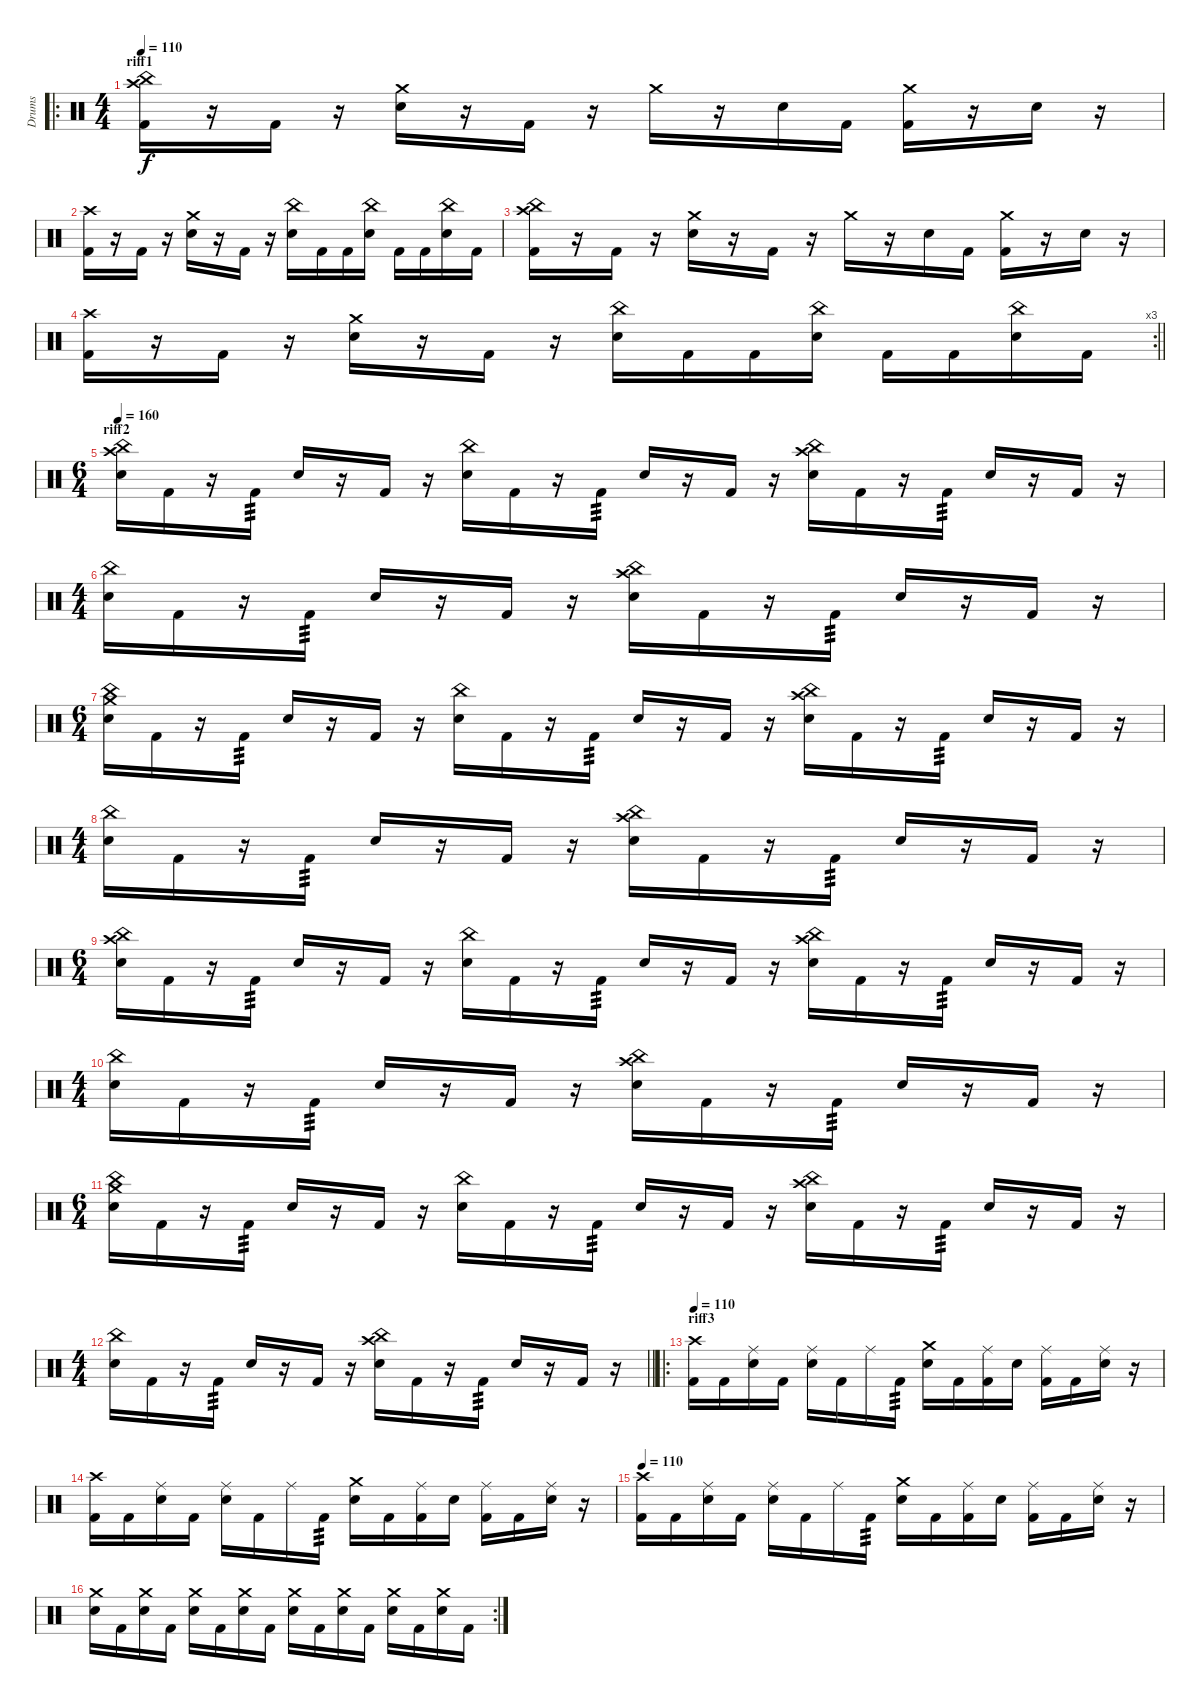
\track ("Drums" "Drums") {instrument percussion}
\staff {score}
\articulation defaults
\ro
\ts (4 4)
\section ("" "riff1")
\tempo 110
\clef neutral
\ks c
("Crash high (hit)" "China (hit)" "Kick (hit) 2").16{dy f} r.16 "Kick (hit) 2".16 r.16 ("Crash medium (hit)" "Electric Snare (hit)").16 r.16 "Kick (hit) 2".16 r.16 "Crash medium (hit)".16 r.16 "Electric Snare (hit)".16 "Kick (hit) 2".16 ("Crash medium (hit)" "Kick (hit) 2").16 r.16 "Electric Snare (hit)".16 r.16 |
("Crash high (hit)" "Kick (hit) 2").16 r.16 "Kick (hit) 2".16 r.16 ("Crash medium (hit)" "Electric Snare (hit)").16 r.16 "Kick (hit) 2".16 r.16 ("China (hit)" "Electric Snare (hit)").16 "Kick (hit) 2".16 "Kick (hit) 2".16 ("China (hit)" "Electric Snare (hit)").16 "Kick (hit) 2".16 "Kick (hit) 2".16 ("China (hit)" "Electric Snare (hit)").16 "Kick (hit) 2".16 |
("Crash high (hit)" "China (hit)" "Kick (hit) 2").16 r.16 "Kick (hit) 2".16 r.16 ("Crash medium (hit)" "Electric Snare (hit)").16 r.16 "Kick (hit) 2".16 r.16 "Crash medium (hit)".16 r.16 "Electric Snare (hit)".16 "Kick (hit) 2".16 ("Crash medium (hit)" "Kick (hit) 2").16 r.16 "Electric Snare (hit)".16 r.16 |
\rc 3
\barLineRight lightlight
("Crash high (hit)" "Kick (hit) 2").16 r.16 "Kick (hit) 2".16 r.16 ("Crash medium (hit)" "Electric Snare (hit)").16 r.16 "Kick (hit) 2".16 r.16 ("China (hit)" "Electric Snare (hit)").16 "Kick (hit) 2".16 "Kick (hit) 2".16 ("China (hit)" "Electric Snare (hit)").16 "Kick (hit) 2".16 "Kick (hit) 2".16 ("China (hit)" "Electric Snare (hit)").16 "Kick (hit) 2".16 |
\ts (6 4)
\section ("" "riff2")
\tempo 160
("China (hit)" "Crash high (hit)" "Electric Snare (hit)").16 "Kick (hit) 2".16 r.16 "Kick (hit) 2".16{tp 3} "Electric Snare (hit)".16 r.16 "Kick (hit) 2".16 r.16 ("China (hit)" "Electric Snare (hit)").16 "Kick (hit) 2".16 r.16 "Kick (hit) 2".16{tp 3} "Electric Snare (hit)".16 r.16 "Kick (hit) 2".16 r.16 ("China (hit)" "Crash high (hit)" "Electric Snare (hit)").16 "Kick (hit) 2".16 r.16 "Kick (hit) 2".16{tp 3} "Electric Snare (hit)".16 r.16 "Kick (hit) 2".16 r.16 |
\ts (4 4)
("China (hit)" "Electric Snare (hit)").16 "Kick (hit) 2".16 r.16 "Kick (hit) 2".16{tp 3} "Electric Snare (hit)".16 r.16 "Kick (hit) 2".16 r.16 ("China (hit)" "Crash high (hit)" "Electric Snare (hit)").16 "Kick (hit) 2".16 r.16 "Kick (hit) 2".16{tp 3} "Electric Snare (hit)".16 r.16 "Kick (hit) 2".16 r.16 |
\ts (6 4)
("China (hit)" "Crash medium (hit)" "Electric Snare (hit)").16 "Kick (hit) 2".16 r.16 "Kick (hit) 2".16{tp 3} "Electric Snare (hit)".16 r.16 "Kick (hit) 2".16 r.16 ("China (hit)" "Electric Snare (hit)").16 "Kick (hit) 2".16 r.16 "Kick (hit) 2".16{tp 3} "Electric Snare (hit)".16 r.16 "Kick (hit) 2".16 r.16 ("China (hit)" "Crash high (hit)" "Electric Snare (hit)").16 "Kick (hit) 2".16 r.16 "Kick (hit) 2".16{tp 3} "Electric Snare (hit)".16 r.16 "Kick (hit) 2".16 r.16 |
\ts (4 4)
("China (hit)" "Electric Snare (hit)").16 "Kick (hit) 2".16 r.16 "Kick (hit) 2".16{tp 3} "Electric Snare (hit)".16 r.16 "Kick (hit) 2".16 r.16 ("China (hit)" "Crash high (hit)" "Electric Snare (hit)").16 "Kick (hit) 2".16 r.16 "Kick (hit) 2".16{tp 3} "Electric Snare (hit)".16 r.16 "Kick (hit) 2".16 r.16 |
\ts (6 4)
("China (hit)" "Crash high (hit)" "Electric Snare (hit)").16 "Kick (hit) 2".16 r.16 "Kick (hit) 2".16{tp 3} "Electric Snare (hit)".16 r.16 "Kick (hit) 2".16 r.16 ("China (hit)" "Electric Snare (hit)").16 "Kick (hit) 2".16 r.16 "Kick (hit) 2".16{tp 3} "Electric Snare (hit)".16 r.16 "Kick (hit) 2".16 r.16 ("China (hit)" "Crash high (hit)" "Electric Snare (hit)").16 "Kick (hit) 2".16 r.16 "Kick (hit) 2".16{tp 3} "Electric Snare (hit)".16 r.16 "Kick (hit) 2".16 r.16 |
\ts (4 4)
("China (hit)" "Electric Snare (hit)").16 "Kick (hit) 2".16 r.16 "Kick (hit) 2".16{tp 3} "Electric Snare (hit)".16 r.16 "Kick (hit) 2".16 r.16 ("China (hit)" "Crash high (hit)" "Electric Snare (hit)").16 "Kick (hit) 2".16 r.16 "Kick (hit) 2".16{tp 3} "Electric Snare (hit)".16 r.16 "Kick (hit) 2".16 r.16 |
\ts (6 4)
("China (hit)" "Crash medium (hit)" "Electric Snare (hit)").16 "Kick (hit) 2".16 r.16 "Kick (hit) 2".16{tp 3} "Electric Snare (hit)".16 r.16 "Kick (hit) 2".16 r.16 ("China (hit)" "Electric Snare (hit)").16 "Kick (hit) 2".16 r.16 "Kick (hit) 2".16{tp 3} "Electric Snare (hit)".16 r.16 "Kick (hit) 2".16 r.16 ("China (hit)" "Crash high (hit)" "Electric Snare (hit)").16 "Kick (hit) 2".16 r.16 "Kick (hit) 2".16{tp 3} "Electric Snare (hit)".16 r.16 "Kick (hit) 2".16 r.16 |
\ts (4 4)
\barLineRight lightlight
("China (hit)" "Electric Snare (hit)").16 "Kick (hit) 2".16 r.16 "Kick (hit) 2".16{tp 3} "Electric Snare (hit)".16 r.16 "Kick (hit) 2".16 r.16 ("China (hit)" "Crash high (hit)" "Electric Snare (hit)").16 "Kick (hit) 2".16 r.16 "Kick (hit) 2".16{tp 3} "Electric Snare (hit)".16 r.16 "Kick (hit) 2".16 r.16 |
\ro
\section ("" "riff3")
\tempo 110
("Crash high (hit)" "Kick (hit) 2").16 "Kick (hit) 2".16 ("Ride (middle)" "Electric Snare (hit)").16 "Kick (hit) 2".16 ("Ride (middle)" "Electric Snare (hit)").16 "Kick (hit) 2".16 "Ride (middle)".16 "Kick (hit) 2".16{tp 3} ("Crash medium (hit)" "Electric Snare (hit)").16 "Kick (hit) 2".16 ("Ride (middle)" "Kick (hit) 2").16 "Electric Snare (hit)".16 ("Ride (middle)" "Kick (hit) 2").16 "Kick (hit) 2".16 ("Ride (middle)" "Electric Snare (hit)").16 r.16 |
("Crash high (hit)" "Kick (hit) 2").16 "Kick (hit) 2".16 ("Ride (middle)" "Electric Snare (hit)").16 "Kick (hit) 2".16 ("Ride (middle)" "Electric Snare (hit)").16 "Kick (hit) 2".16 "Ride (middle)".16 "Kick (hit) 2".16{tp 3} ("Crash medium (hit)" "Electric Snare (hit)").16 "Kick (hit) 2".16 ("Ride (middle)" "Kick (hit) 2").16 "Electric Snare (hit)".16 ("Ride (middle)" "Kick (hit) 2").16 "Kick (hit) 2".16 ("Ride (middle)" "Electric Snare (hit)").16 r.16 |
\tempo 110
("Crash high (hit)" "Kick (hit) 2").16 "Kick (hit) 2".16 ("Ride (middle)" "Electric Snare (hit)").16 "Kick (hit) 2".16 ("Ride (middle)" "Electric Snare (hit)").16 "Kick (hit) 2".16 "Ride (middle)".16 "Kick (hit) 2".16{tp 3} ("Crash medium (hit)" "Electric Snare (hit)").16 "Kick (hit) 2".16 ("Ride (middle)" "Kick (hit) 2").16 "Electric Snare (hit)".16 ("Ride (middle)" "Kick (hit) 2").16 "Kick (hit) 2".16 ("Ride (middle)" "Electric Snare (hit)").16 r.16 |
\rc 2
("Crash medium (hit)" "Electric Snare (hit)").16 "Kick (hit) 2".16 ("Crash medium (hit)" "Electric Snare (hit)").16 "Kick (hit) 2".16 ("Crash medium (hit)" "Electric Snare (hit)").16 "Kick (hit) 2".16 ("Crash medium (hit)" "Electric Snare (hit)").16 "Kick (hit) 2".16 ("Crash medium (hit)" "Electric Snare (hit)").16 "Kick (hit) 2".16 ("Crash medium (hit)" "Electric Snare (hit)").16 "Kick (hit) 2".16 ("Crash medium (hit)" "Electric Snare (hit)").16 "Kick (hit) 2".16 ("Crash medium (hit)" "Electric Snare (hit)").16 "Kick (hit) 2".16
